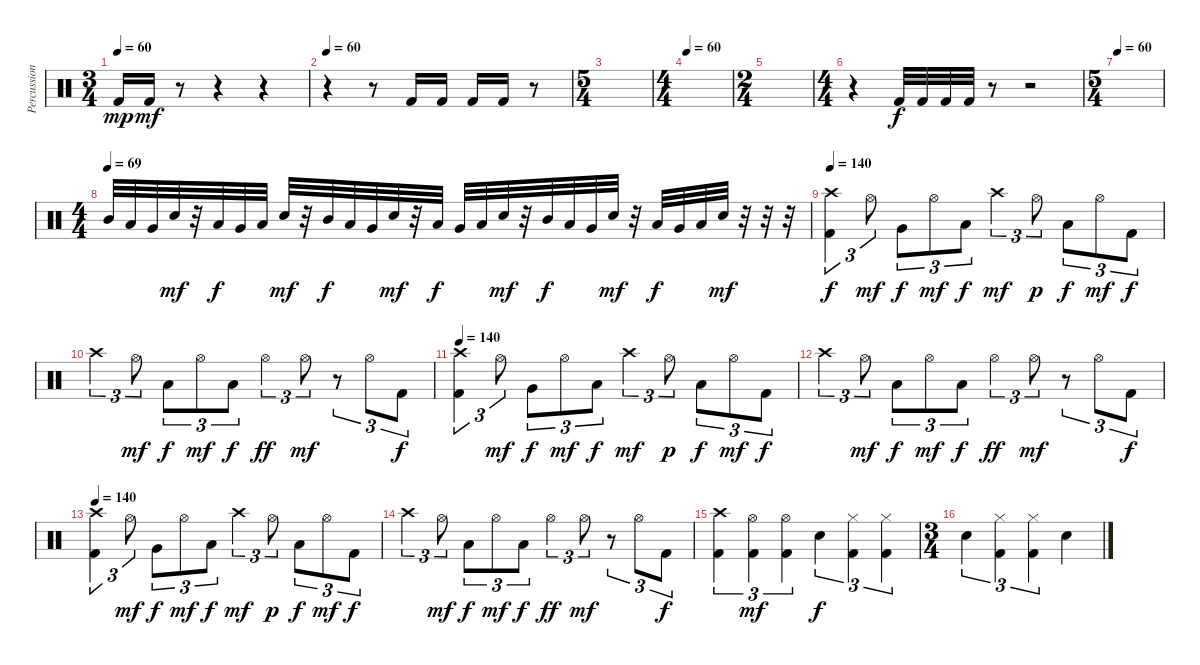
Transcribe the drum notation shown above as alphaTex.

\track ("Percussion" "Percussion") {instrument percussion}
\staff {score}
\articulation defaults
\ts (3 4)
\tempo 60
\clef neutral
\ks c "Kick (hit) 2".16{dy mp} "Kick (hit) 2".16{dy mf}
r.8 r.4 r.4 |
\tempo 60
r.4 r.8 "Kick (hit) 2".16 "Kick (hit) 2".16 "Kick (hit) 2".16 "Kick (hit) 2".16 r.8 |
\ts (5 4)
|
\ts (4 4)
\tempo 60
|
\ts (2 4)
|
\ts (4 4)
r.4 "Kick (hit) 2".32{dy f} "Kick (hit) 2".32 "Kick (hit) 2".32 "Kick (hit) 2".32 r.8 r.2 |
\ts (5 4)
\tempo 60
|
\ts (4 4)
\tempo (69)
"Mid Tom (hit)".32 "Low Tom (hit)".32 "Very Low Tom (hit)".32 "Snare (hit) 2".32{dy mf} r.32 "Low Tom (hit)".32{dy f} "Very Low Tom (hit)".32 "Low Floor Tom (hit)".32 "Snare (hit) 2".32{dy mf} r.32 "Mid Tom (hit)".32{dy f} "Low Tom (hit)".32 "Very Low Tom (hit)".32 "Snare (hit) 2".32{dy mf} r.32 "Low Tom (hit)".32{dy f} "Very Low Tom (hit)".32 "Low Floor Tom (hit)".32 "Snare (hit) 2".32{dy mf} r.32 "Mid Tom (hit)".32{dy f} "Low Tom (hit)".32 "Very Low Tom (hit)".32 "Snare (hit) 2".32{dy mf} r.32 "Low Tom (hit)".32{dy f} "Very Low Tom (hit)".32 "Low Floor Tom (hit)".32 "Snare (hit) 2".32{dy mf} r.32 r.32 r.32 |
\tempo 140
("Crash high (hit)" "Kick (hit) 2").4{tu (3 2) dy f} "Hi-Hat (open)".8{tu (3 2) dy mf} "Very Low Tom (hit)".8{tu (3 2) dy f} "Hi-Hat (open)".8{tu (3 2) dy mf} "Low Floor Tom (hit)".8{tu (3 2) dy f} "Crash high (hit)".4{tu (3 2) dy mf} "Hi-Hat (open)".8{tu (3 2) dy p} "Low Floor Tom (hit)".8{tu (3 2) dy f} "Hi-Hat (open)".8{tu (3 2) dy mf} "Kick (hit) 2".8{tu (3 2) dy f} |
"Crash high (hit)".4{tu (3 2)} "Hi-Hat (open)".8{tu (3 2) dy mf} "Low Floor Tom (hit)".8{tu (3 2) dy f} "Hi-Hat (open)".8{tu (3 2) dy mf} "Low Floor Tom (hit)".8{tu (3 2) dy f} "Hi-Hat (open)".4{tu (3 2) dy ff} "Hi-Hat (open)".8{tu (3 2) dy mf} r.8{tu (3 2)} "Hi-Hat (open)".8{tu (3 2)} "Kick (hit) 2".8{tu (3 2) dy f} |
\tempo 140
("Crash high (hit)" "Kick (hit) 2").4{tu (3 2)} "Hi-Hat (open)".8{tu (3 2) dy mf} "Very Low Tom (hit)".8{tu (3 2) dy f} "Hi-Hat (open)".8{tu (3 2) dy mf} "Low Floor Tom (hit)".8{tu (3 2) dy f} "Crash high (hit)".4{tu (3 2) dy mf} "Hi-Hat (open)".8{tu (3 2) dy p} "Low Floor Tom (hit)".8{tu (3 2) dy f} "Hi-Hat (open)".8{tu (3 2) dy mf} "Kick (hit) 2".8{tu (3 2) dy f} |
"Crash high (hit)".4{tu (3 2)} "Hi-Hat (open)".8{tu (3 2) dy mf} "Low Floor Tom (hit)".8{tu (3 2) dy f} "Hi-Hat (open)".8{tu (3 2) dy mf} "Low Floor Tom (hit)".8{tu (3 2) dy f} "Hi-Hat (open)".4{tu (3 2) dy ff} "Hi-Hat (open)".8{tu (3 2) dy mf} r.8{tu (3 2)} "Hi-Hat (open)".8{tu (3 2)} "Kick (hit) 2".8{tu (3 2) dy f} |
\tempo 140
("Crash high (hit)" "Kick (hit) 2").4{tu (3 2)} "Hi-Hat (open)".8{tu (3 2) dy mf} "Very Low Tom (hit)".8{tu (3 2) dy f} "Hi-Hat (open)".8{tu (3 2) dy mf} "Low Floor Tom (hit)".8{tu (3 2) dy f} "Crash high (hit)".4{tu (3 2) dy mf} "Hi-Hat (open)".8{tu (3 2) dy p} "Low Floor Tom (hit)".8{tu (3 2) dy f} "Hi-Hat (open)".8{tu (3 2) dy mf} "Kick (hit) 2".8{tu (3 2) dy f} |
"Crash high (hit)".4{tu (3 2)} "Hi-Hat (open)".8{tu (3 2) dy mf} "Low Floor Tom (hit)".8{tu (3 2) dy f} "Hi-Hat (open)".8{tu (3 2) dy mf} "Low Floor Tom (hit)".8{tu (3 2) dy f} "Hi-Hat (open)".4{tu (3 2) dy ff} "Hi-Hat (open)".8{tu (3 2) dy mf} r.8{tu (3 2)} "Hi-Hat (open)".8{tu (3 2)} "Kick (hit) 2".8{tu (3 2) dy f} |
("Crash high (hit)" "Kick (hit) 2").4{tu (3 2)} ("Hi-Hat (open)" "Kick (hit) 2").4{tu (3 2) dy mf} ("Hi-Hat (open)" "Kick (hit) 2").4{tu (3 2)} "Snare (hit) 2".4{tu (3 2) dy f} ("Hi-Hat (closed)" "Kick (hit) 2").4{tu (3 2)} ("Hi-Hat (closed)" "Kick (hit) 2").4{tu (3 2)} |
\ts (3 4)
"Snare (hit) 2".4{tu (3 2)} ("Hi-Hat (closed)" "Kick (hit) 2").4{tu (3 2)} ("Hi-Hat (closed)" "Kick (hit) 2").4{tu (3 2)} "Snare (hit) 2".4
